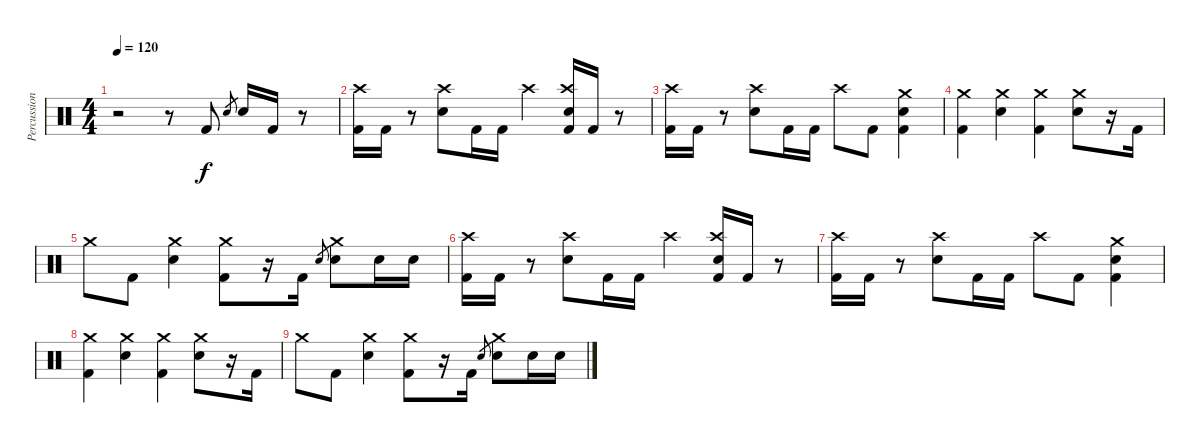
\track ("Percussions" "Percussion") {instrument percussion}
\staff {score}
\articulation defaults
\ts (4 4)
\tempo 120
\clef neutral
\ks c
r.2{dy f} r.8 "Kick (hit) 2".8 "Snare (hit) 2".8{gr} "Snare (hit) 2".16 "Kick (hit) 2".16 r.8 |
("Crash high (hit)" "Kick (hit) 2").16 "Kick (hit) 2".16 r.8 ("Crash high (hit)" "Electric Snare (hit)").8 "Kick (hit) 2".16 "Kick (hit) 2".16 "Crash high (hit)".4 ("Crash high (hit)" "Electric Snare (hit)" "Kick (hit) 2").16 "Kick (hit) 2".16 r.8 |
("Crash high (hit)" "Kick (hit) 2").16 "Kick (hit) 2".16 r.8 ("Crash high (hit)" "Electric Snare (hit)").8 "Kick (hit) 2".16 "Kick (hit) 2".16 "Crash high (hit)".8 "Kick (hit) 2".8 ("Crash medium (hit)" "Electric Snare (hit)" "Kick (hit) 2").4 |
("Crash medium (hit)" "Kick (hit) 2").4 ("Crash medium (hit)" "Electric Snare (hit)").4 ("Crash medium (hit)" "Kick (hit) 2").4 ("Crash medium (hit)" "Electric Snare (hit)").8 r.16 "Kick (hit) 2".16 |
"Crash medium (hit)".8 "Kick (hit) 2".8 ("Crash medium (hit)" "Electric Snare (hit)").4 ("Crash medium (hit)" "Kick (hit) 2").8 r.16 "Kick (hit) 2".16 "Electric Snare (hit)".8{gr} ("Crash medium (hit)" "Electric Snare (hit)").8 "Electric Snare (hit)".16 "Electric Snare (hit)".16 |
("Crash high (hit)" "Kick (hit) 2").16 "Kick (hit) 2".16 r.8 ("Crash high (hit)" "Electric Snare (hit)").8 "Kick (hit) 2".16 "Kick (hit) 2".16 "Crash high (hit)".4 ("Crash high (hit)" "Electric Snare (hit)" "Kick (hit) 2").16 "Kick (hit) 2".16 r.8 |
("Crash high (hit)" "Kick (hit) 2").16 "Kick (hit) 2".16 r.8 ("Crash high (hit)" "Electric Snare (hit)").8 "Kick (hit) 2".16 "Kick (hit) 2".16 "Crash high (hit)".8 "Kick (hit) 2".8 ("Crash medium (hit)" "Electric Snare (hit)" "Kick (hit) 2").4 |
("Crash medium (hit)" "Kick (hit) 2").4 ("Crash medium (hit)" "Electric Snare (hit)").4 ("Crash medium (hit)" "Kick (hit) 2").4 ("Crash medium (hit)" "Electric Snare (hit)").8 r.16 "Kick (hit) 2".16 |
"Crash medium (hit)".8 "Kick (hit) 2".8 ("Crash medium (hit)" "Electric Snare (hit)").4 ("Crash medium (hit)" "Kick (hit) 2").8 r.16 "Kick (hit) 2".16 "Electric Snare (hit)".8{gr} ("Crash medium (hit)" "Electric Snare (hit)").8 "Electric Snare (hit)".16 "Electric Snare (hit)".16
